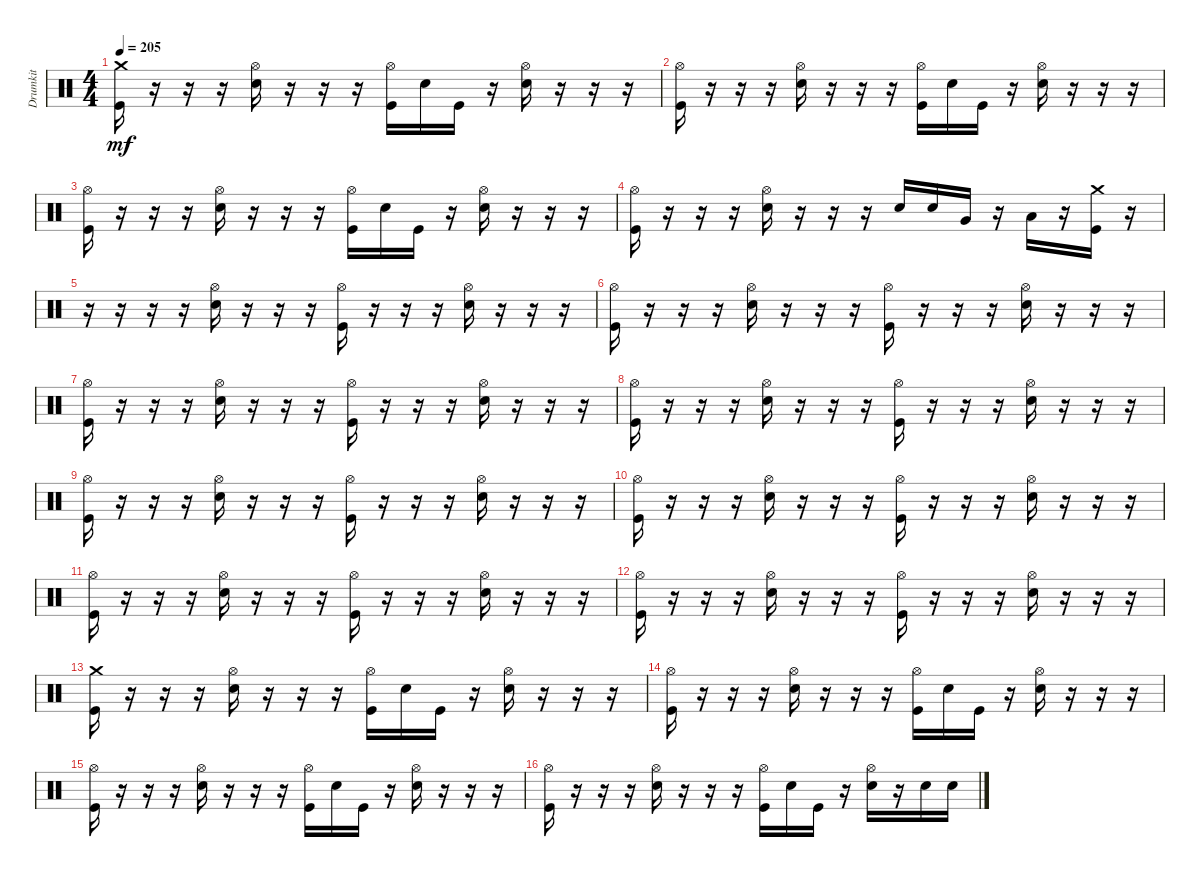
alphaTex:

\track ("Drumkit" "Drumkit") {instrument percussion}
\staff {score}
\articulation defaults
\ts (4 4)
\tempo 205
\clef neutral
\ks c
("Kick (hit)" "Crash medium (hit)").16{dy mf} r.16 r.16 r.16 ("Snare (hit) 2" "Hi-Hat (open)").16 r.16 r.16 r.16 ("Kick (hit)" "Hi-Hat (open)").16 "Snare (hit) 2".16 "Kick (hit)".16 r.16 ("Snare (hit) 2" "Hi-Hat (open)").16 r.16 r.16 r.16 |
("Kick (hit)" "Hi-Hat (open)").16 r.16 r.16 r.16 ("Snare (hit) 2" "Hi-Hat (open)").16 r.16 r.16 r.16 ("Kick (hit)" "Hi-Hat (open)").16 "Snare (hit) 2".16 "Kick (hit)".16 r.16 ("Snare (hit) 2" "Hi-Hat (open)").16 r.16 r.16 r.16 |
("Kick (hit)" "Hi-Hat (open)").16 r.16 r.16 r.16 ("Snare (hit) 2" "Hi-Hat (open)").16 r.16 r.16 r.16 ("Kick (hit)" "Hi-Hat (open)").16 "Snare (hit) 2".16 "Kick (hit)".16 r.16 ("Snare (hit) 2" "Hi-Hat (open)").16 r.16 r.16 r.16 |
("Kick (hit)" "Hi-Hat (open)").16 r.16 r.16 r.16 ("Snare (hit) 2" "Hi-Hat (open)").16 r.16 r.16 r.16 "Snare (hit) 2".16 "Snare (hit) 2".16 "Very Low Tom (hit)".16 r.16 "Low Floor Tom (hit)".16 r.16 ("Crash medium (hit)" "Kick (hit)").16 r.16 |
r.16 r.16 r.16 r.16 ("Snare (hit) 2" "Hi-Hat (open)").16 r.16 r.16 r.16 ("Kick (hit)" "Hi-Hat (open)").16 r.16 r.16 r.16 ("Snare (hit) 2" "Hi-Hat (open)").16 r.16 r.16 r.16 |
("Hi-Hat (open)" "Kick (hit)").16 r.16 r.16 r.16 ("Snare (hit) 2" "Hi-Hat (open)").16 r.16 r.16 r.16 ("Kick (hit)" "Hi-Hat (open)").16 r.16 r.16 r.16 ("Snare (hit) 2" "Hi-Hat (open)").16 r.16 r.16 r.16 |
("Hi-Hat (open)" "Kick (hit)").16 r.16 r.16 r.16 ("Snare (hit) 2" "Hi-Hat (open)").16 r.16 r.16 r.16 ("Kick (hit)" "Hi-Hat (open)").16 r.16 r.16 r.16 ("Snare (hit) 2" "Hi-Hat (open)").16 r.16 r.16 r.16 |
("Hi-Hat (open)" "Kick (hit)").16 r.16 r.16 r.16 ("Snare (hit) 2" "Hi-Hat (open)").16 r.16 r.16 r.16 ("Kick (hit)" "Hi-Hat (open)").16 r.16 r.16 r.16 ("Snare (hit) 2" "Hi-Hat (open)").16 r.16 r.16 r.16 |
("Hi-Hat (open)" "Kick (hit)").16 r.16 r.16 r.16 ("Snare (hit) 2" "Hi-Hat (open)").16 r.16 r.16 r.16 ("Kick (hit)" "Hi-Hat (open)").16 r.16 r.16 r.16 ("Snare (hit) 2" "Hi-Hat (open)").16 r.16 r.16 r.16 |
("Hi-Hat (open)" "Kick (hit)").16 r.16 r.16 r.16 ("Snare (hit) 2" "Hi-Hat (open)").16 r.16 r.16 r.16 ("Kick (hit)" "Hi-Hat (open)").16 r.16 r.16 r.16 ("Snare (hit) 2" "Hi-Hat (open)").16 r.16 r.16 r.16 |
("Hi-Hat (open)" "Kick (hit)").16 r.16 r.16 r.16 ("Snare (hit) 2" "Hi-Hat (open)").16 r.16 r.16 r.16 ("Kick (hit)" "Hi-Hat (open)").16 r.16 r.16 r.16 ("Snare (hit) 2" "Hi-Hat (open)").16 r.16 r.16 r.16 |
("Hi-Hat (open)" "Kick (hit)").16 r.16 r.16 r.16 ("Snare (hit) 2" "Hi-Hat (open)").16 r.16 r.16 r.16 ("Kick (hit)" "Hi-Hat (open)").16 r.16 r.16 r.16 ("Snare (hit) 2" "Hi-Hat (open)").16 r.16 r.16 r.16 |
("Kick (hit)" "Crash medium (hit)").16 r.16 r.16 r.16 ("Snare (hit) 2" "Hi-Hat (open)").16 r.16 r.16 r.16 ("Hi-Hat (open)" "Kick (hit)").16 "Snare (hit) 2".16 "Kick (hit)".16 r.16 ("Hi-Hat (open)" "Snare (hit) 2").16 r.16 r.16 r.16 |
("Kick (hit)" "Hi-Hat (open)").16 r.16 r.16 r.16 ("Snare (hit) 2" "Hi-Hat (open)").16 r.16 r.16 r.16 ("Kick (hit)" "Hi-Hat (open)").16 "Snare (hit) 2".16 "Kick (hit)".16 r.16 ("Snare (hit) 2" "Hi-Hat (open)").16 r.16 r.16 r.16 |
("Kick (hit)" "Hi-Hat (open)").16 r.16 r.16 r.16 ("Snare (hit) 2" "Hi-Hat (open)").16 r.16 r.16 r.16 ("Kick (hit)" "Hi-Hat (open)").16 "Snare (hit) 2".16 "Kick (hit)".16 r.16 ("Snare (hit) 2" "Hi-Hat (open)").16 r.16 r.16 r.16 |
("Kick (hit)" "Hi-Hat (open)").16 r.16 r.16 r.16 ("Snare (hit) 2" "Hi-Hat (open)").16 r.16 r.16 r.16 ("Kick (hit)" "Hi-Hat (open)").16 "Snare (hit) 2".16 "Kick (hit)".16 r.16 ("Snare (hit) 2" "Hi-Hat (open)").16 r.16 "Snare (hit) 2".16 "Snare (hit) 2".16
